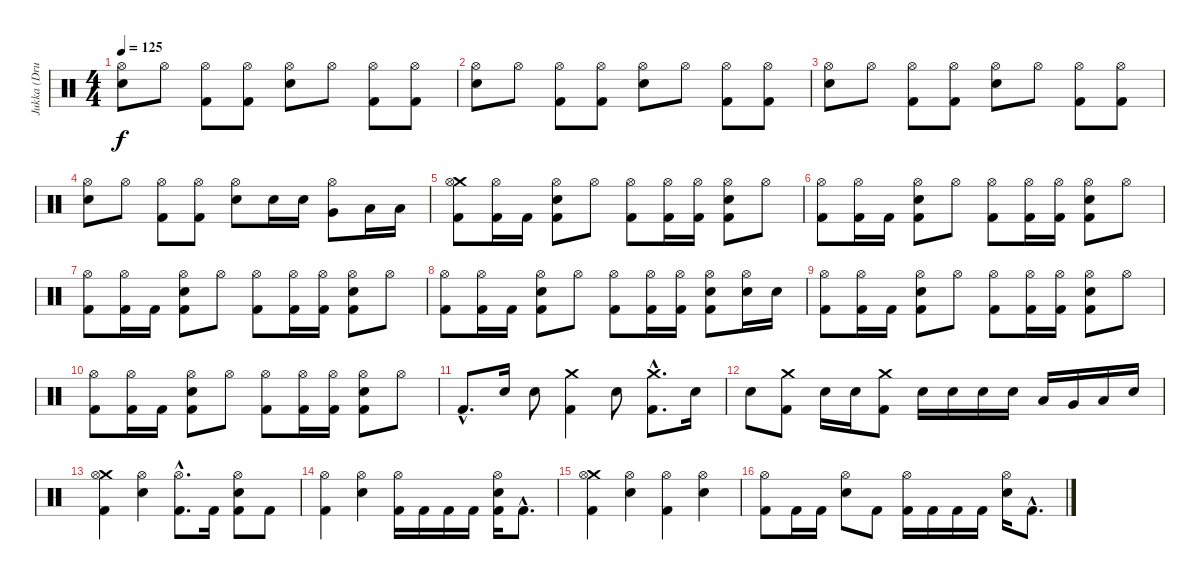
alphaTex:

\track ("Jukka (Drums)" "Jukka (Dru") {instrument percussion}
\staff {score}
\articulation defaults
\ts (4 4)
\tempo 125
\clef neutral
\ks c
("Hi-Hat (open)" "Electric Snare (hit)").8{dy f} "Hi-Hat (open)".8 ("Hi-Hat (open)" "Kick (hit) 2").8 ("Hi-Hat (open)" "Kick (hit) 2").8 ("Hi-Hat (open)" "Electric Snare (hit)").8 "Hi-Hat (open)".8 ("Hi-Hat (open)" "Kick (hit) 2").8 ("Hi-Hat (open)" "Kick (hit) 2").8 |
("Hi-Hat (open)" "Electric Snare (hit)").8 "Hi-Hat (open)".8 ("Hi-Hat (open)" "Kick (hit) 2").8 ("Hi-Hat (open)" "Kick (hit) 2").8 ("Hi-Hat (open)" "Electric Snare (hit)").8 "Hi-Hat (open)".8 ("Hi-Hat (open)" "Kick (hit) 2").8 ("Hi-Hat (open)" "Kick (hit) 2").8 |
("Hi-Hat (open)" "Electric Snare (hit)").8 "Hi-Hat (open)".8 ("Hi-Hat (open)" "Kick (hit) 2").8 ("Hi-Hat (open)" "Kick (hit) 2").8 ("Hi-Hat (open)" "Electric Snare (hit)").8 "Hi-Hat (open)".8 ("Hi-Hat (open)" "Kick (hit) 2").8 ("Hi-Hat (open)" "Kick (hit) 2").8 |
("Hi-Hat (open)" "Electric Snare (hit)").8 "Hi-Hat (open)".8 ("Hi-Hat (open)" "Kick (hit) 2").8 ("Hi-Hat (open)" "Kick (hit) 2").8 ("Hi-Hat (open)" "Electric Snare (hit)").8 "Electric Snare (hit)".16 "Electric Snare (hit)".16 ("Hi-Hat (open)" "Very Low Tom (hit)").8 "Low Tom (hit)".16 "Low Tom (hit)".16 |
("Crash medium (hit)" "Hi-Hat (open)" "Kick (hit) 2").8 ("Hi-Hat (open)" "Kick (hit) 2").16 "Kick (hit) 2".16 ("Hi-Hat (open)" "Electric Snare (hit)" "Kick (hit) 2").8 "Hi-Hat (open)".8 ("Hi-Hat (open)" "Kick (hit) 2").8 ("Hi-Hat (open)" "Kick (hit) 2").16 ("Hi-Hat (open)" "Kick (hit) 2").16 ("Hi-Hat (open)" "Electric Snare (hit)" "Kick (hit) 2").8 "Hi-Hat (open)".8 |
("Hi-Hat (open)" "Kick (hit) 2").8 ("Hi-Hat (open)" "Kick (hit) 2").16 "Kick (hit) 2".16 ("Hi-Hat (open)" "Electric Snare (hit)" "Kick (hit) 2").8 "Hi-Hat (open)".8 ("Hi-Hat (open)" "Kick (hit) 2").8 ("Hi-Hat (open)" "Kick (hit) 2").16 ("Hi-Hat (open)" "Kick (hit) 2").16 ("Hi-Hat (open)" "Electric Snare (hit)" "Kick (hit) 2").8 "Hi-Hat (open)".8 |
("Hi-Hat (open)" "Kick (hit) 2").8 ("Hi-Hat (open)" "Kick (hit) 2").16 "Kick (hit) 2".16 ("Hi-Hat (open)" "Electric Snare (hit)" "Kick (hit) 2").8 "Hi-Hat (open)".8 ("Hi-Hat (open)" "Kick (hit) 2").8 ("Hi-Hat (open)" "Kick (hit) 2").16 ("Hi-Hat (open)" "Kick (hit) 2").16 ("Hi-Hat (open)" "Electric Snare (hit)" "Kick (hit) 2").8 "Hi-Hat (open)".8 |
("Hi-Hat (open)" "Kick (hit) 2").8 ("Hi-Hat (open)" "Kick (hit) 2").16 "Kick (hit) 2".16 ("Hi-Hat (open)" "Electric Snare (hit)" "Kick (hit) 2").8 "Hi-Hat (open)".8 ("Hi-Hat (open)" "Kick (hit) 2").8 ("Hi-Hat (open)" "Kick (hit) 2").16 ("Hi-Hat (open)" "Kick (hit) 2").16 ("Hi-Hat (open)" "Electric Snare (hit)" "Kick (hit) 2").8 ("Hi-Hat (open)" "Electric Snare (hit)").16 "Electric Snare (hit)".16 |
("Hi-Hat (open)" "Kick (hit) 2").8 ("Hi-Hat (open)" "Kick (hit) 2").16 "Kick (hit) 2".16 ("Hi-Hat (open)" "Electric Snare (hit)" "Kick (hit) 2").8 "Hi-Hat (open)".8 ("Hi-Hat (open)" "Kick (hit) 2").8 ("Hi-Hat (open)" "Kick (hit) 2").16 ("Hi-Hat (open)" "Kick (hit) 2").16 ("Hi-Hat (open)" "Electric Snare (hit)" "Kick (hit) 2").8 "Hi-Hat (open)".8 |
("Hi-Hat (open)" "Kick (hit) 2").8 ("Hi-Hat (open)" "Kick (hit) 2").16 "Kick (hit) 2".16 ("Hi-Hat (open)" "Electric Snare (hit)" "Kick (hit) 2").8 "Hi-Hat (open)".8 ("Hi-Hat (open)" "Kick (hit) 2").8 ("Hi-Hat (open)" "Kick (hit) 2").16 ("Hi-Hat (open)" "Kick (hit) 2").16 ("Hi-Hat (open)" "Electric Snare (hit)" "Kick (hit) 2").8 "Hi-Hat (open)".8 |
"Kick (hit) 2"{hac}.8{d} "Electric Snare (hit)".16 "Electric Snare (hit)".8 ("Crash medium (hit)" "Kick (hit) 2").4 "Electric Snare (hit)".8 ("Crash medium (hit)" "Kick (hit) 2"{hac}).8{d} "Electric Snare (hit)".16 |
"Electric Snare (hit)".8 ("Crash medium (hit)" "Kick (hit) 2").8 "Electric Snare (hit)".16 "Electric Snare (hit)".16 ("Crash medium (hit)" "Kick (hit) 2").8 "Electric Snare (hit)".16 "Electric Snare (hit)".16 "Electric Snare (hit)".16 "Electric Snare (hit)".16 "Low Tom (hit)".16 "Very Low Tom (hit)".16 "Low Floor Tom (hit)".16 "Electric Snare (hit)".16 |
("Crash medium (hit)" "Hi-Hat (open)" "Kick (hit) 2").4 ("Hi-Hat (open)" "Electric Snare (hit)").4 ("Hi-Hat (open)"{hac} "Kick (hit) 2"{hac}).8{d} "Kick (hit) 2".16 ("Hi-Hat (open)" "Electric Snare (hit)" "Kick (hit) 2").8 "Kick (hit) 2".8 |
("Hi-Hat (open)" "Kick (hit) 2").4 ("Hi-Hat (open)" "Electric Snare (hit)").4 ("Hi-Hat (open)" "Kick (hit) 2").16 "Kick (hit) 2".16 "Kick (hit) 2".16 "Kick (hit) 2".16 ("Hi-Hat (open)" "Electric Snare (hit)" "Kick (hit) 2").16 "Kick (hit) 2"{hac}.8{d} |
("Crash medium (hit)" "Hi-Hat (open)" "Kick (hit) 2").4 ("Hi-Hat (open)" "Electric Snare (hit)").4 ("Hi-Hat (open)" "Kick (hit) 2").4 ("Hi-Hat (open)" "Electric Snare (hit)").4 |
("Hi-Hat (open)" "Kick (hit) 2").8 "Kick (hit) 2".16 "Kick (hit) 2".16 ("Hi-Hat (open)" "Electric Snare (hit)").8 "Kick (hit) 2".8 ("Hi-Hat (open)" "Kick (hit) 2").16 "Kick (hit) 2".16 "Kick (hit) 2".16 "Kick (hit) 2".16 ("Hi-Hat (open)" "Electric Snare (hit)").16 "Kick (hit) 2"{hac}.8{d}
